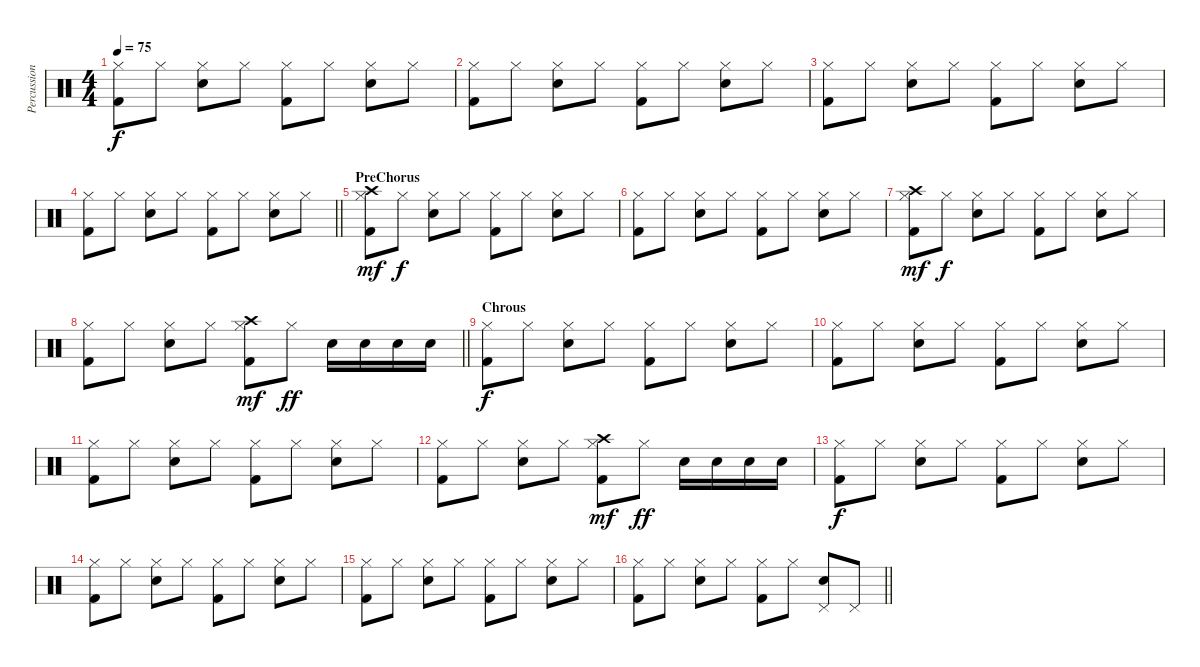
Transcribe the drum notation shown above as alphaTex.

\track ("Percussion" "Percussion") {instrument percussion}
\staff {score}
\articulation defaults
\ts (4 4)
\tempo 75
\clef neutral
\ks c
("Hi-Hat (closed)" "Kick (hit) 2").8{dy f} "Hi-Hat (closed)".8 ("Hi-Hat (closed)" "Snare (hit) 2").8 "Hi-Hat (closed)".8 ("Hi-Hat (closed)" "Kick (hit) 2").8 "Hi-Hat (closed)".8 ("Hi-Hat (closed)" "Snare (hit) 2").8 "Hi-Hat (closed)".8 |
("Hi-Hat (closed)" "Kick (hit) 2").8 "Hi-Hat (closed)".8 ("Hi-Hat (closed)" "Snare (hit) 2").8 "Hi-Hat (closed)".8 ("Hi-Hat (closed)" "Kick (hit) 2").8 "Hi-Hat (closed)".8 ("Hi-Hat (closed)" "Snare (hit) 2").8 "Hi-Hat (closed)".8 |
("Hi-Hat (closed)" "Kick (hit) 2").8 "Hi-Hat (closed)".8 ("Hi-Hat (closed)" "Snare (hit) 2").8 "Hi-Hat (closed)".8 ("Hi-Hat (closed)" "Kick (hit) 2").8 "Hi-Hat (closed)".8 ("Hi-Hat (closed)" "Snare (hit) 2").8 "Hi-Hat (closed)".8 |
\barLineRight lightlight
("Hi-Hat (closed)" "Kick (hit) 2").8 "Hi-Hat (closed)".8 ("Hi-Hat (closed)" "Snare (hit) 2").8 "Hi-Hat (closed)".8 ("Hi-Hat (closed)" "Kick (hit) 2").8 "Hi-Hat (closed)".8 ("Hi-Hat (closed)" "Snare (hit) 2").8 "Hi-Hat (closed)".8 |
\section ("" "PreChorus")
("Hi-Hat (closed)" "Kick (hit) 2" "Crash high (hit)").8{dy mf} "Hi-Hat (closed)".8{dy f} ("Hi-Hat (closed)" "Snare (hit) 2").8 "Hi-Hat (closed)".8 ("Hi-Hat (closed)" "Kick (hit) 2").8 "Hi-Hat (closed)".8 ("Hi-Hat (closed)" "Snare (hit) 2").8 "Hi-Hat (closed)".8 |
("Hi-Hat (closed)" "Kick (hit) 2").8 "Hi-Hat (closed)".8 ("Hi-Hat (closed)" "Snare (hit) 2").8 "Hi-Hat (closed)".8 ("Hi-Hat (closed)" "Kick (hit) 2").8 "Hi-Hat (closed)".8 ("Hi-Hat (closed)" "Snare (hit) 2").8 "Hi-Hat (closed)".8 |
("Hi-Hat (closed)" "Kick (hit) 2" "Crash high (hit)").8{dy mf} "Hi-Hat (closed)".8{dy f} ("Hi-Hat (closed)" "Snare (hit) 2").8 "Hi-Hat (closed)".8 ("Hi-Hat (closed)" "Kick (hit) 2").8 "Hi-Hat (closed)".8 ("Hi-Hat (closed)" "Snare (hit) 2").8 "Hi-Hat (closed)".8 |
\barLineRight lightlight
("Hi-Hat (closed)" "Kick (hit) 2").8 "Hi-Hat (closed)".8 ("Hi-Hat (closed)" "Snare (hit) 2").8 "Hi-Hat (closed)".8 ("Hi-Hat (closed)" "Kick (hit) 2" "Crash high (hit)").8{dy mf} "Hi-Hat (closed)".8{dy ff} "Snare (hit) 2".16 "Snare (hit) 2".16 "Snare (hit) 2".16 "Snare (hit) 2".16 |
\section ("" "Chrous")
("Hi-Hat (closed)" "Kick (hit) 2").8{dy f} "Hi-Hat (closed)".8 ("Hi-Hat (closed)" "Snare (hit) 2").8 "Hi-Hat (closed)".8 ("Hi-Hat (closed)" "Kick (hit) 2").8 "Hi-Hat (closed)".8 ("Hi-Hat (closed)" "Snare (hit) 2").8 "Hi-Hat (closed)".8 |
("Hi-Hat (closed)" "Kick (hit) 2").8 "Hi-Hat (closed)".8 ("Hi-Hat (closed)" "Snare (hit) 2").8 "Hi-Hat (closed)".8 ("Hi-Hat (closed)" "Kick (hit) 2").8 "Hi-Hat (closed)".8 ("Hi-Hat (closed)" "Snare (hit) 2").8 "Hi-Hat (closed)".8 |
("Hi-Hat (closed)" "Kick (hit) 2").8 "Hi-Hat (closed)".8 ("Hi-Hat (closed)" "Snare (hit) 2").8 "Hi-Hat (closed)".8 ("Hi-Hat (closed)" "Kick (hit) 2").8 "Hi-Hat (closed)".8 ("Hi-Hat (closed)" "Snare (hit) 2").8 "Hi-Hat (closed)".8 |
("Hi-Hat (closed)" "Kick (hit) 2").8 "Hi-Hat (closed)".8 ("Hi-Hat (closed)" "Snare (hit) 2").8 "Hi-Hat (closed)".8 ("Hi-Hat (closed)" "Kick (hit) 2" "Crash high (hit)").8{dy mf} "Hi-Hat (closed)".8{dy ff} "Snare (hit) 2".16 "Snare (hit) 2".16 "Snare (hit) 2".16 "Snare (hit) 2".16 |
("Hi-Hat (closed)" "Kick (hit) 2").8{dy f} "Hi-Hat (closed)".8 ("Hi-Hat (closed)" "Snare (hit) 2").8 "Hi-Hat (closed)".8 ("Hi-Hat (closed)" "Kick (hit) 2").8 "Hi-Hat (closed)".8 ("Hi-Hat (closed)" "Snare (hit) 2").8 "Hi-Hat (closed)".8 |
("Hi-Hat (closed)" "Kick (hit) 2").8 "Hi-Hat (closed)".8 ("Hi-Hat (closed)" "Snare (hit) 2").8 "Hi-Hat (closed)".8 ("Hi-Hat (closed)" "Kick (hit) 2").8 "Hi-Hat (closed)".8 ("Hi-Hat (closed)" "Snare (hit) 2").8 "Hi-Hat (closed)".8 |
("Hi-Hat (closed)" "Kick (hit) 2").8 "Hi-Hat (closed)".8 ("Hi-Hat (closed)" "Snare (hit) 2").8 "Hi-Hat (closed)".8 ("Hi-Hat (closed)" "Kick (hit) 2").8 "Hi-Hat (closed)".8 ("Hi-Hat (closed)" "Snare (hit) 2").8 "Hi-Hat (closed)".8 |
\barLineRight lightlight
("Hi-Hat (closed)" "Kick (hit) 2").8 "Hi-Hat (closed)".8 ("Hi-Hat (closed)" "Snare (hit) 2").8 "Hi-Hat (closed)".8 ("Hi-Hat (closed)" "Kick (hit) 2").8 "Hi-Hat (closed)".8 ("Pedal Hi-Hat (hit)" "Snare (hit) 2").8 "Pedal Hi-Hat (hit)".8
